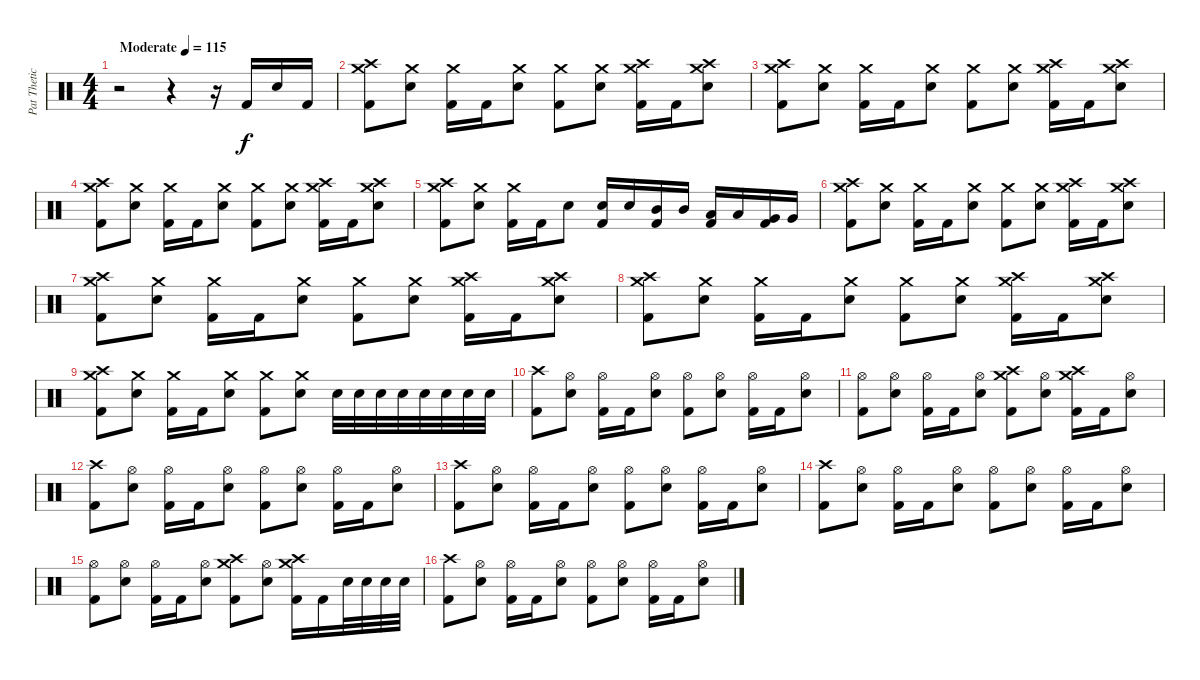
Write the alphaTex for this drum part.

\track ("Pat Thetic" "Pat Thetic") {instrument percussion}
\staff {score}
\articulation defaults
\ts (4 4)
\tempo (115 "Moderate")
\clef neutral
\ks c
r.2{dy f} r.4 r.16 "Kick (hit) 2".16 "Electric Snare (hit)".16 "Kick (hit) 2".16 |
("Crash high (hit)" "Crash medium (hit)" "Kick (hit) 2").8 ("Crash medium (hit)" "Electric Snare (hit)").8 ("Crash medium (hit)" "Kick (hit) 2").16 "Kick (hit) 2".16 ("Crash medium (hit)" "Electric Snare (hit)").8 ("Crash medium (hit)" "Kick (hit) 2").8 ("Crash medium (hit)" "Electric Snare (hit)").8 ("Crash high (hit)" "Crash medium (hit)" "Kick (hit) 2").16 "Kick (hit) 2".16 ("Crash high (hit)" "Crash medium (hit)" "Electric Snare (hit)").8 |
("Crash high (hit)" "Crash medium (hit)" "Kick (hit) 2").8 ("Crash medium (hit)" "Electric Snare (hit)").8 ("Crash medium (hit)" "Kick (hit) 2").16 "Kick (hit) 2".16 ("Crash medium (hit)" "Electric Snare (hit)").8 ("Crash medium (hit)" "Kick (hit) 2").8 ("Crash medium (hit)" "Electric Snare (hit)").8 ("Crash high (hit)" "Crash medium (hit)" "Kick (hit) 2").16 "Kick (hit) 2".16 ("Crash high (hit)" "Crash medium (hit)" "Electric Snare (hit)").8 |
("Crash high (hit)" "Crash medium (hit)" "Kick (hit) 2").8 ("Crash medium (hit)" "Electric Snare (hit)").8 ("Crash medium (hit)" "Kick (hit) 2").16 "Kick (hit) 2".16 ("Crash medium (hit)" "Electric Snare (hit)").8 ("Crash medium (hit)" "Kick (hit) 2").8 ("Crash medium (hit)" "Electric Snare (hit)").8 ("Crash high (hit)" "Crash medium (hit)" "Kick (hit) 2").16 "Kick (hit) 2".16 ("Crash high (hit)" "Crash medium (hit)" "Electric Snare (hit)").8 |
("Crash high (hit)" "Crash medium (hit)" "Kick (hit) 2").8 ("Crash medium (hit)" "Electric Snare (hit)").8 ("Crash medium (hit)" "Kick (hit) 2").16 "Kick (hit) 2".16 "Electric Snare (hit)".8 ("Electric Snare (hit)" "Kick (hit) 2").16 "Electric Snare (hit)".16 ("Mid Tom (hit)" "Kick (hit) 2").16 "Mid Tom (hit)".16 ("Low Tom (hit)" "Kick (hit) 2").16 "Low Tom (hit)".16 ("Very Low Tom (hit)" "Kick (hit) 2").16 "Very Low Tom (hit)".16 |
("Crash high (hit)" "Crash medium (hit)" "Kick (hit) 2").8 ("Crash medium (hit)" "Electric Snare (hit)").8 ("Crash medium (hit)" "Kick (hit) 2").16 "Kick (hit) 2".16 ("Crash medium (hit)" "Electric Snare (hit)").8 ("Crash medium (hit)" "Kick (hit) 2").8 ("Crash medium (hit)" "Electric Snare (hit)").8 ("Crash high (hit)" "Crash medium (hit)" "Kick (hit) 2").16 "Kick (hit) 2".16 ("Crash high (hit)" "Crash medium (hit)" "Electric Snare (hit)").8 |
("Crash high (hit)" "Crash medium (hit)" "Kick (hit) 2").8 ("Crash medium (hit)" "Electric Snare (hit)").8 ("Crash medium (hit)" "Kick (hit) 2").16 "Kick (hit) 2".16 ("Crash medium (hit)" "Electric Snare (hit)").8 ("Crash medium (hit)" "Kick (hit) 2").8 ("Crash medium (hit)" "Electric Snare (hit)").8 ("Crash high (hit)" "Crash medium (hit)" "Kick (hit) 2").16 "Kick (hit) 2".16 ("Crash high (hit)" "Crash medium (hit)" "Electric Snare (hit)").8 |
("Crash high (hit)" "Crash medium (hit)" "Kick (hit) 2").8 ("Crash medium (hit)" "Electric Snare (hit)").8 ("Crash medium (hit)" "Kick (hit) 2").16 "Kick (hit) 2".16 ("Crash medium (hit)" "Electric Snare (hit)").8 ("Crash medium (hit)" "Kick (hit) 2").8 ("Crash medium (hit)" "Electric Snare (hit)").8 ("Crash high (hit)" "Crash medium (hit)" "Kick (hit) 2").16 "Kick (hit) 2".16 ("Crash high (hit)" "Crash medium (hit)" "Electric Snare (hit)").8 |
("Crash high (hit)" "Crash medium (hit)" "Kick (hit) 2").8 ("Crash medium (hit)" "Electric Snare (hit)").8 ("Crash medium (hit)" "Kick (hit) 2").16 "Kick (hit) 2".16 ("Crash medium (hit)" "Electric Snare (hit)").8 ("Crash medium (hit)" "Kick (hit) 2").8 ("Crash medium (hit)" "Electric Snare (hit)").8 "Electric Snare (hit)".32 "Electric Snare (hit)".32 "Electric Snare (hit)".32 "Electric Snare (hit)".32 "Electric Snare (hit)".32 "Electric Snare (hit)".32 "Electric Snare (hit)".32 "Electric Snare (hit)".32 |
("Crash high (hit)" "Kick (hit) 2").8 ("Hi-Hat (open)" "Electric Snare (hit)").8 ("Hi-Hat (open)" "Kick (hit) 2").16 "Kick (hit) 2".16 ("Hi-Hat (open)" "Electric Snare (hit)").8 ("Hi-Hat (open)" "Kick (hit) 2").8 ("Hi-Hat (open)" "Electric Snare (hit)").8 ("Hi-Hat (open)" "Kick (hit) 2").16 "Kick (hit) 2".16 ("Hi-Hat (open)" "Electric Snare (hit)").8 |
("Hi-Hat (open)" "Kick (hit) 2").8 ("Hi-Hat (open)" "Electric Snare (hit)").8 ("Hi-Hat (open)" "Kick (hit) 2").16 "Kick (hit) 2".16 ("Hi-Hat (open)" "Electric Snare (hit)").8 ("Crash high (hit)" "Crash medium (hit)" "Kick (hit) 2").8 ("Hi-Hat (open)" "Electric Snare (hit)").8 ("Crash high (hit)" "Crash medium (hit)" "Kick (hit) 2").16 "Kick (hit) 2".16 ("Hi-Hat (open)" "Electric Snare (hit)").8 |
("Crash high (hit)" "Kick (hit) 2").8 ("Hi-Hat (open)" "Electric Snare (hit)").8 ("Hi-Hat (open)" "Kick (hit) 2").16 "Kick (hit) 2".16 ("Hi-Hat (open)" "Electric Snare (hit)").8 ("Hi-Hat (open)" "Kick (hit) 2").8 ("Hi-Hat (open)" "Electric Snare (hit)").8 ("Hi-Hat (open)" "Kick (hit) 2").16 "Kick (hit) 2".16 ("Hi-Hat (open)" "Electric Snare (hit)").8 |
("Crash high (hit)" "Kick (hit) 2").8 ("Hi-Hat (open)" "Electric Snare (hit)").8 ("Hi-Hat (open)" "Kick (hit) 2").16 "Kick (hit) 2".16 ("Hi-Hat (open)" "Electric Snare (hit)").8 ("Hi-Hat (open)" "Kick (hit) 2").8 ("Hi-Hat (open)" "Electric Snare (hit)").8 ("Hi-Hat (open)" "Kick (hit) 2").16 "Kick (hit) 2".16 ("Hi-Hat (open)" "Electric Snare (hit)").8 |
("Crash high (hit)" "Kick (hit) 2").8 ("Hi-Hat (open)" "Electric Snare (hit)").8 ("Hi-Hat (open)" "Kick (hit) 2").16 "Kick (hit) 2".16 ("Hi-Hat (open)" "Electric Snare (hit)").8 ("Hi-Hat (open)" "Kick (hit) 2").8 ("Hi-Hat (open)" "Electric Snare (hit)").8 ("Hi-Hat (open)" "Kick (hit) 2").16 "Kick (hit) 2".16 ("Hi-Hat (open)" "Electric Snare (hit)").8 |
("Hi-Hat (open)" "Kick (hit) 2").8 ("Hi-Hat (open)" "Electric Snare (hit)").8 ("Hi-Hat (open)" "Kick (hit) 2").16 "Kick (hit) 2".16 ("Hi-Hat (open)" "Electric Snare (hit)").8 ("Crash high (hit)" "Crash medium (hit)" "Kick (hit) 2").8 ("Hi-Hat (open)" "Electric Snare (hit)").8 ("Crash high (hit)" "Crash medium (hit)" "Kick (hit) 2").16 "Kick (hit) 2".16 "Electric Snare (hit)".32 "Electric Snare (hit)".32 "Electric Snare (hit)".32 "Electric Snare (hit)".32 |
("Crash high (hit)" "Kick (hit) 2").8 ("Hi-Hat (open)" "Electric Snare (hit)").8 ("Hi-Hat (open)" "Kick (hit) 2").16 "Kick (hit) 2".16 ("Hi-Hat (open)" "Electric Snare (hit)").8 ("Hi-Hat (open)" "Kick (hit) 2").8 ("Hi-Hat (open)" "Electric Snare (hit)").8 ("Hi-Hat (open)" "Kick (hit) 2").16 "Kick (hit) 2".16 ("Hi-Hat (open)" "Electric Snare (hit)").8
